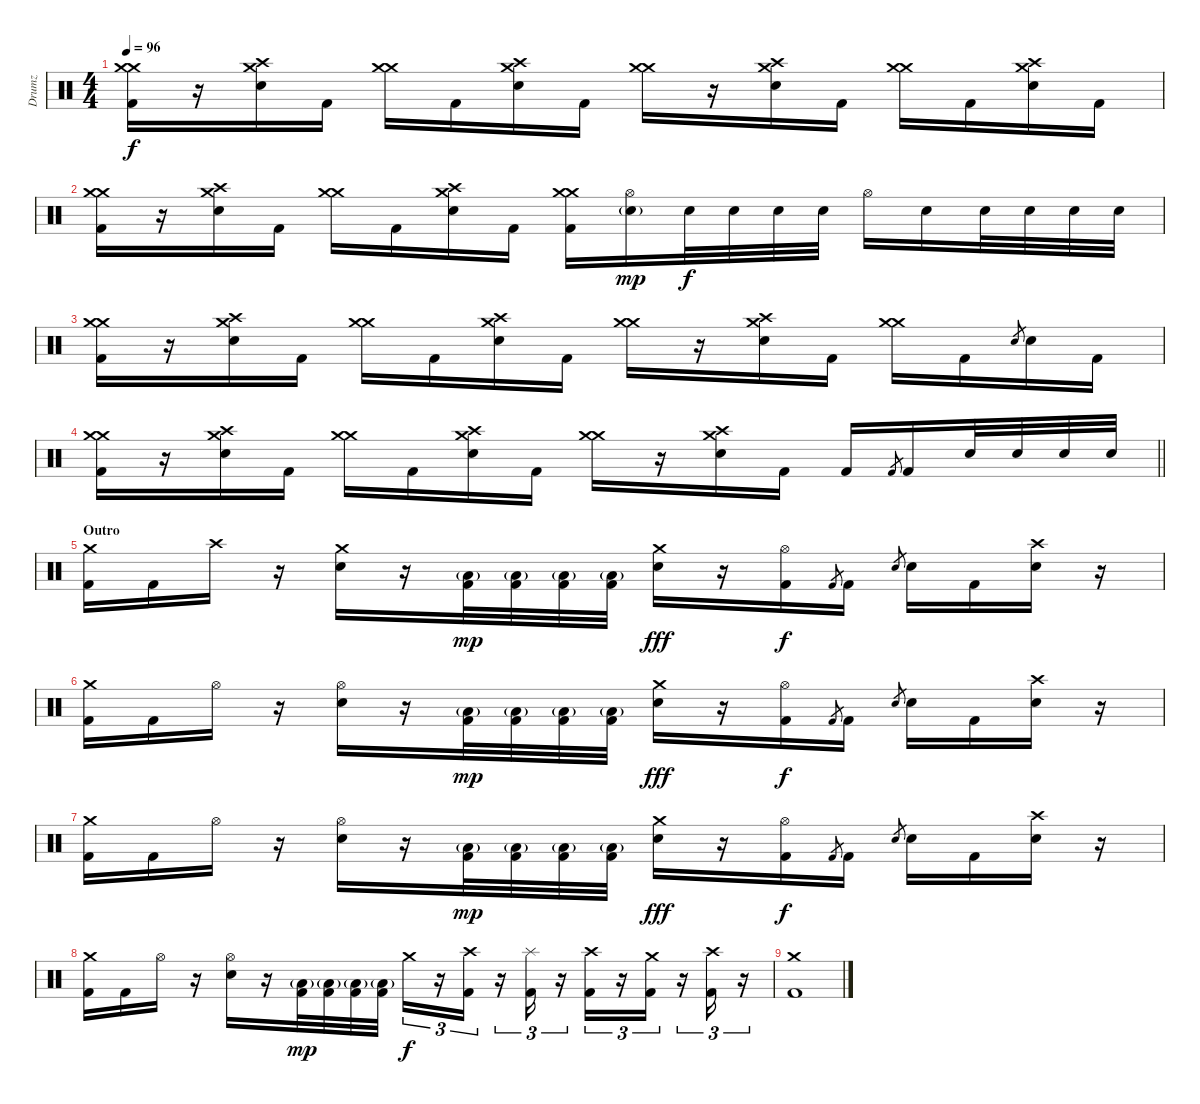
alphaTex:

\track ("Drumz" "Drumz") {instrument percussion}
\staff {score}
\articulation defaults
\ts (4 4)
\tempo 96
\clef neutral
\ks c
("Crash medium (hit)" "Crash medium (hit)" "Kick (hit) 2").16{dy f} r.16 ("Crash high (hit)" "Crash medium (hit)" "Electric Snare (hit)").16 "Kick (hit) 2".16 ("Crash medium (hit)" "Crash medium (hit)").16 "Kick (hit) 2".16 ("Crash high (hit)" "Crash medium (hit)" "Electric Snare (hit)").16 "Kick (hit) 2".16 ("Crash medium (hit)" "Crash medium (hit)").16 r.16 ("Crash high (hit)" "Crash medium (hit)" "Electric Snare (hit)").16 "Kick (hit) 2".16 ("Crash medium (hit)" "Crash medium (hit)").16 "Kick (hit) 2".16 ("Crash high (hit)" "Crash medium (hit)" "Electric Snare (hit)").16 "Kick (hit) 2".16 |
("Crash medium (hit)" "Crash medium (hit)" "Kick (hit) 2").16 r.16 ("Crash high (hit)" "Crash medium (hit)" "Electric Snare (hit)").16 "Kick (hit) 2".16 ("Crash medium (hit)" "Crash medium (hit)").16 "Kick (hit) 2".16 ("Crash high (hit)" "Crash medium (hit)" "Electric Snare (hit)").16 "Kick (hit) 2".16 ("Crash medium (hit)" "Crash medium (hit)" "Kick (hit) 2").16 ("Hi-Hat (open)" "Electric Snare (hit)"{g}).16{dy mp} "Electric Snare (hit)".32{dy f} "Electric Snare (hit)".32 "Electric Snare (hit)".32 "Electric Snare (hit)".32 "Hi-Hat (open)".16 "Electric Snare (hit)".16 "Electric Snare (hit)".32 "Electric Snare (hit)".32 "Electric Snare (hit)".32 "Electric Snare (hit)".32 |
("Crash medium (hit)" "Crash medium (hit)" "Kick (hit) 2").16 r.16 ("Crash high (hit)" "Crash medium (hit)" "Electric Snare (hit)").16 "Kick (hit) 2".16 ("Crash medium (hit)" "Crash medium (hit)").16 "Kick (hit) 2".16 ("Crash high (hit)" "Crash medium (hit)" "Electric Snare (hit)").16 "Kick (hit) 2".16 ("Crash medium (hit)" "Crash medium (hit)").16 r.16 ("Crash high (hit)" "Crash medium (hit)" "Electric Snare (hit)").16 "Kick (hit) 2".16 ("Crash medium (hit)" "Crash medium (hit)").16 "Kick (hit) 2".16 "Electric Snare (hit)".8{gr} "Electric Snare (hit)".16 "Kick (hit) 2".16 |
\barLineRight lightlight
("Crash medium (hit)" "Crash medium (hit)" "Kick (hit) 2").16 r.16 ("Crash high (hit)" "Crash medium (hit)" "Electric Snare (hit)").16 "Kick (hit) 2".16 ("Crash medium (hit)" "Crash medium (hit)").16 "Kick (hit) 2".16 ("Crash high (hit)" "Crash medium (hit)" "Electric Snare (hit)").16 "Kick (hit) 2".16 ("Crash medium (hit)" "Crash medium (hit)").16 r.16 ("Crash high (hit)" "Crash medium (hit)" "Electric Snare (hit)").16 "Kick (hit) 2".16 "Kick (hit) 2".16 "Kick (hit) 2".8{gr} "Kick (hit) 2".16 "Electric Snare (hit)".32 "Electric Snare (hit)".32 "Electric Snare (hit)".32 "Electric Snare (hit)".32 |
\section ("" "Outro")
("Crash medium (hit)" "Kick (hit) 2").16 "Kick (hit) 2".16 "Crash high (hit)".16 r.16 ("Crash medium (hit)" "Electric Snare (hit)").16 r.16 ("Low Floor Tom (hit)"{g} "Kick (hit) 2").32{dy mp} ("Low Floor Tom (hit)"{g} "Kick (hit) 2").32 ("Low Floor Tom (hit)"{g} "Kick (hit) 2").32 ("Low Floor Tom (hit)"{g} "Kick (hit) 2").32 ("Crash medium (hit)" "Electric Snare (hit)").16{dy fff} r.16 ("Hi-Hat (open)" "Kick (hit) 2").16{dy f} "Kick (hit) 2".8{gr} "Kick (hit) 2".16 "Electric Snare (hit)".8{gr} "Electric Snare (hit)".16 "Kick (hit) 2".16 ("Crash high (hit)" "Electric Snare (hit)").16 r.16 |
("Crash medium (hit)" "Kick (hit) 2").16 "Kick (hit) 2".16 "Hi-Hat (open)".16 r.16 ("Hi-Hat (open)" "Electric Snare (hit)").16 r.16 ("Low Floor Tom (hit)"{g} "Kick (hit) 2").32{dy mp} ("Low Floor Tom (hit)"{g} "Kick (hit) 2").32 ("Low Floor Tom (hit)"{g} "Kick (hit) 2").32 ("Low Floor Tom (hit)"{g} "Kick (hit) 2").32 ("Crash medium (hit)" "Electric Snare (hit)").16{dy fff} r.16 ("Hi-Hat (open)" "Kick (hit) 2").16{dy f} "Kick (hit) 2".8{gr} "Kick (hit) 2".16 "Electric Snare (hit)".8{gr} "Electric Snare (hit)".16 "Kick (hit) 2".16 ("Crash high (hit)" "Electric Snare (hit)").16 r.16 |
("Crash medium (hit)" "Kick (hit) 2").16 "Kick (hit) 2".16 "Hi-Hat (open)".16 r.16 ("Hi-Hat (open)" "Electric Snare (hit)").16 r.16 ("Low Floor Tom (hit)"{g} "Kick (hit) 2").32{dy mp} ("Low Floor Tom (hit)"{g} "Kick (hit) 2").32 ("Low Floor Tom (hit)"{g} "Kick (hit) 2").32 ("Low Floor Tom (hit)"{g} "Kick (hit) 2").32 ("Crash medium (hit)" "Electric Snare (hit)").16{dy fff} r.16 ("Hi-Hat (open)" "Kick (hit) 2").16{dy f} "Kick (hit) 2".8{gr} "Kick (hit) 2".16 "Electric Snare (hit)".8{gr} "Electric Snare (hit)".16 "Kick (hit) 2".16 ("Crash high (hit)" "Electric Snare (hit)").16 r.16 |
("Crash medium (hit)" "Kick (hit) 2").16 "Kick (hit) 2".16 "Hi-Hat (open)".16 r.16 ("Hi-Hat (open)" "Electric Snare (hit)").16 r.16 ("Low Floor Tom (hit)"{g} "Kick (hit) 2").32{dy mp} ("Low Floor Tom (hit)"{g} "Kick (hit) 2").32 ("Low Floor Tom (hit)"{g} "Kick (hit) 2").32 ("Low Floor Tom (hit)"{g} "Kick (hit) 2").32 "Crash medium (hit)".16{tu (3 2) dy f} r.16{tu (3 2)} ("Crash high (hit)" "Kick (hit) 2").16{tu (3 2)} r.16{tu (3 2)} ("Splash (hit)" "Kick (hit) 2").16{tu (3 2)} r.16{tu (3 2)} ("Crash high (hit)" "Kick (hit) 2").16{tu (3 2)} r.16{tu (3 2)} ("Crash medium (hit)" "Kick (hit) 2").16{tu (3 2)} r.16{tu (3 2)} ("Crash high (hit)" "Kick (hit) 2").16{tu (3 2)} r.16{tu (3 2)} |
("Crash medium (hit)" "Kick (hit) 2").1
